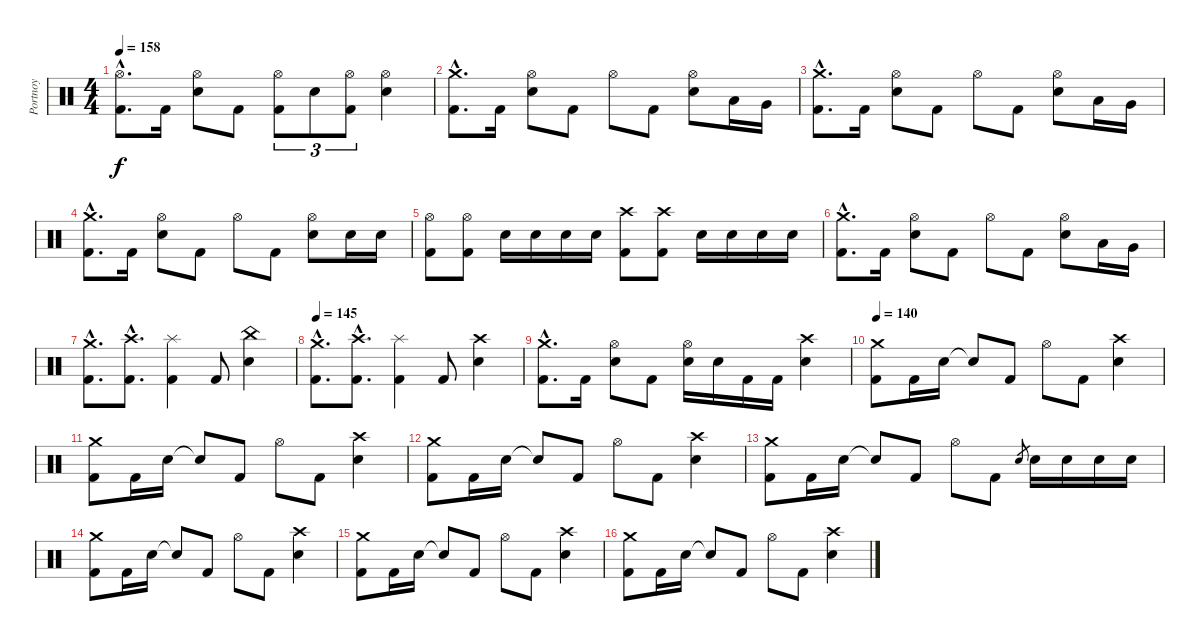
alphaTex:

\track ("Portnoy" "Portnoy") {instrument percussion}
\staff {score}
\articulation defaults
\ts (4 4)
\tempo 158
\clef neutral
\ks c
("Kick (hit) 2"{hac} "Hi-Hat (open)"{hac}).8{d dy f} "Kick (hit) 2".16 ("Electric Snare (hit)" "Hi-Hat (open)").8 "Kick (hit) 2".8 ("Kick (hit) 2" "Hi-Hat (open)").8{tu (3 2)} "Electric Snare (hit)".8{tu (3 2)} ("Kick (hit) 2" "Hi-Hat (open)").8{tu (3 2)} ("Electric Snare (hit)" "Hi-Hat (open)").4 |
("Kick (hit) 2"{hac} "Crash medium (hit)"{hac}).8{d} "Kick (hit) 2".16 ("Electric Snare (hit)" "Hi-Hat (open)").8 "Kick (hit) 2".8 "Hi-Hat (open)".8 "Kick (hit) 2".8 ("Electric Snare (hit)" "Hi-Hat (open)").8 "Low Tom (hit)".16 "Very Low Tom (hit)".16 |
("Kick (hit) 2"{hac} "Crash medium (hit)"{hac}).8{d} "Kick (hit) 2".16 ("Electric Snare (hit)" "Hi-Hat (open)").8 "Kick (hit) 2".8 "Hi-Hat (open)".8 "Kick (hit) 2".8 ("Electric Snare (hit)" "Hi-Hat (open)").8 "Low Tom (hit)".16 "Very Low Tom (hit)".16 |
("Kick (hit) 2"{hac} "Crash medium (hit)"{hac}).8{d} "Kick (hit) 2".16 ("Electric Snare (hit)" "Hi-Hat (open)").8 "Kick (hit) 2".8 "Hi-Hat (open)".8 "Kick (hit) 2".8 ("Electric Snare (hit)" "Hi-Hat (open)").8 "Electric Snare (hit)".16 "Electric Snare (hit)".16 |
("Kick (hit) 2" "Hi-Hat (open)").8 ("Kick (hit) 2" "Hi-Hat (open)").8 "Electric Snare (hit)".16 "Electric Snare (hit)".16 "Electric Snare (hit)".16 "Electric Snare (hit)".16 ("Kick (hit) 2" "Crash high (hit)").8 ("Kick (hit) 2" "Crash high (hit)").8 "Electric Snare (hit)".16 "Electric Snare (hit)".16 "Electric Snare (hit)".16 "Electric Snare (hit)".16 |
("Kick (hit) 2"{hac} "Crash medium (hit)"{hac}).8{d} "Kick (hit) 2".16 ("Electric Snare (hit)" "Hi-Hat (open)").8 "Kick (hit) 2".8 "Hi-Hat (open)".8 "Kick (hit) 2".8 ("Electric Snare (hit)" "Hi-Hat (open)").8 "Low Tom (hit)".16 "Very Low Tom (hit)".16 |
("Kick (hit) 2"{hac} "Crash medium (hit)"{hac}).8{d} ("Kick (hit) 2"{hac} "Crash high (hit)"{hac}).8{d} ("Kick (hit) 2" "Splash (hit)").4 "Kick (hit) 2".8 ("Electric Snare (hit)" "China (hit)").4 |
\tempo 145
("Kick (hit) 2"{hac} "Crash medium (hit)"{hac}).8{d} ("Kick (hit) 2"{hac} "Crash high (hit)"{hac}).8{d} ("Kick (hit) 2" "Splash (hit)").4 "Kick (hit) 2".8 ("Electric Snare (hit)" "Crash high (hit)").4 |
("Kick (hit) 2"{hac} "Crash medium (hit)"{hac}).8{d} "Kick (hit) 2".16 ("Electric Snare (hit)" "Hi-Hat (open)").8 "Kick (hit) 2".8 ("Electric Snare (hit)" "Hi-Hat (open)").16 "Electric Snare (hit)".16 "Kick (hit) 2".16 "Kick (hit) 2".16 ("Electric Snare (hit)" "Crash high (hit)").4 |
\tempo 140
("Kick (hit) 2" "Crash medium (hit)").8 "Kick (hit) 2".16 "Electric Snare (hit)".16 "Snare (hit)"{t}.8 "Kick (hit) 2".8 "Hi-Hat (open)".8 "Kick (hit) 2".8 ("Electric Snare (hit)" "Crash high (hit)").4 |
("Kick (hit) 2" "Crash medium (hit)").8 "Kick (hit) 2".16 "Electric Snare (hit)".16 "Snare (hit)"{t}.8 "Kick (hit) 2".8 "Hi-Hat (open)".8 "Kick (hit) 2".8 ("Electric Snare (hit)" "Crash high (hit)").4 |
("Kick (hit) 2" "Crash medium (hit)").8 "Kick (hit) 2".16 "Electric Snare (hit)".16 "Snare (hit)"{t}.8 "Kick (hit) 2".8 "Hi-Hat (open)".8 "Kick (hit) 2".8 ("Electric Snare (hit)" "Crash high (hit)").4 |
("Kick (hit) 2" "Crash medium (hit)").8 "Kick (hit) 2".16 "Electric Snare (hit)".16 "Snare (hit)"{t}.8 "Kick (hit) 2".8 "Hi-Hat (open)".8 "Kick (hit) 2".8 "Electric Snare (hit)".8{gr} "Electric Snare (hit)".16 "Electric Snare (hit)".16 "Electric Snare (hit)".16 "Electric Snare (hit)".16 |
("Kick (hit) 2" "Crash medium (hit)").8 "Kick (hit) 2".16 "Electric Snare (hit)".16 "Snare (hit)"{t}.8 "Kick (hit) 2".8 "Hi-Hat (open)".8 "Kick (hit) 2".8 ("Electric Snare (hit)" "Crash high (hit)").4 |
("Kick (hit) 2" "Crash medium (hit)").8 "Kick (hit) 2".16 "Electric Snare (hit)".16 "Snare (hit)"{t}.8 "Kick (hit) 2".8 "Hi-Hat (open)".8 "Kick (hit) 2".8 ("Electric Snare (hit)" "Crash high (hit)").4 |
("Kick (hit) 2" "Crash medium (hit)").8 "Kick (hit) 2".16 "Electric Snare (hit)".16 "Snare (hit)"{t}.8 "Kick (hit) 2".8 "Hi-Hat (open)".8 "Kick (hit) 2".8 ("Electric Snare (hit)" "Crash high (hit)").4
